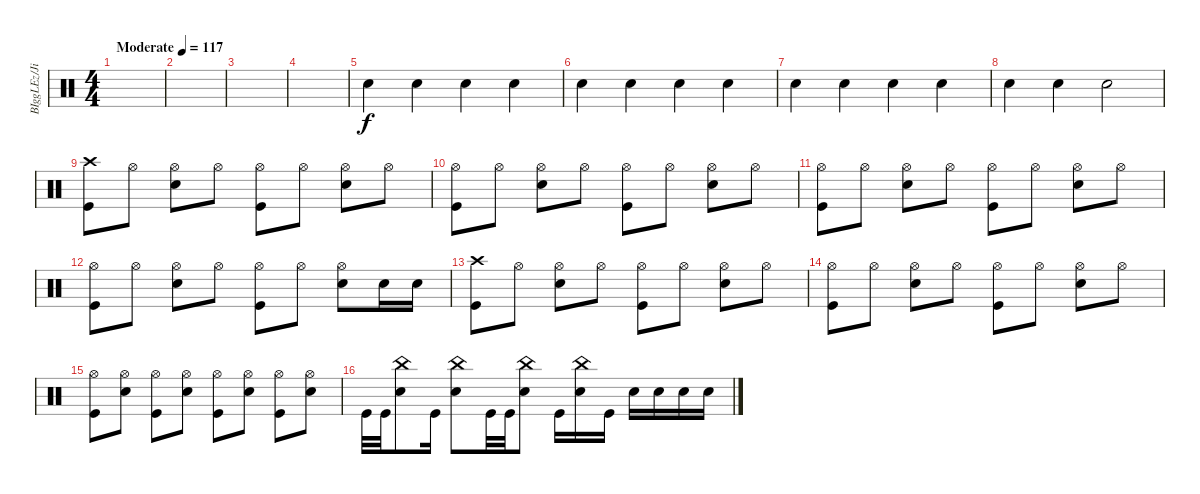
\track ("BIggLEz/Jimmy" "BIggLEz/Ji") {instrument percussion}
\staff {score}
\articulation defaults
\ts (4 4)
\tempo (117 "Moderate")
\clef neutral
\ks c
|
|
|
|
"Hand Clap (hit)".4 "Hand Clap (hit)".4 "Hand Clap (hit)".4 "Hand Clap (hit)".4 |
"Hand Clap (hit)".4 "Hand Clap (hit)".4 "Hand Clap (hit)".4 "Hand Clap (hit)".4 |
"Hand Clap (hit)".4 "Hand Clap (hit)".4 "Hand Clap (hit)".4 "Hand Clap (hit)".4 |
"Hand Clap (hit)".4 "Hand Clap (hit)".4 "Hand Clap (hit)".2 |
("Kick (hit)" "Crash high (hit)").8 "Hi-Hat (open)".8 ("Hi-Hat (open)" "Snare (hit) 2").8 "Hi-Hat (open)".8 ("Hi-Hat (open)" "Kick (hit)").8 "Hi-Hat (open)".8 ("Hi-Hat (open)" "Snare (hit) 2").8 "Hi-Hat (open)".8 |
("Kick (hit)" "Hi-Hat (open)").8 "Hi-Hat (open)".8 ("Hi-Hat (open)" "Snare (hit) 2").8 "Hi-Hat (open)".8 ("Hi-Hat (open)" "Kick (hit)").8 "Hi-Hat (open)".8 ("Hi-Hat (open)" "Snare (hit) 2").8 "Hi-Hat (open)".8 |
("Kick (hit)" "Hi-Hat (open)").8 "Hi-Hat (open)".8 ("Hi-Hat (open)" "Snare (hit) 2").8 "Hi-Hat (open)".8 ("Hi-Hat (open)" "Kick (hit)").8 "Hi-Hat (open)".8 ("Hi-Hat (open)" "Snare (hit) 2").8 "Hi-Hat (open)".8 |
("Kick (hit)" "Hi-Hat (open)").8 "Hi-Hat (open)".8 ("Hi-Hat (open)" "Snare (hit) 2").8 "Hi-Hat (open)".8 ("Hi-Hat (open)" "Kick (hit)").8 "Hi-Hat (open)".8 ("Hi-Hat (open)" "Snare (hit) 2").8 "Snare (hit) 2".16 "Snare (hit) 2".16 |
("Kick (hit)" "Crash high (hit)").8 "Hi-Hat (open)".8 ("Hi-Hat (open)" "Snare (hit) 2").8 "Hi-Hat (open)".8 ("Hi-Hat (open)" "Kick (hit)").8 "Hi-Hat (open)".8 ("Hi-Hat (open)" "Snare (hit) 2").8 "Hi-Hat (open)".8 |
("Kick (hit)" "Hi-Hat (open)").8 "Hi-Hat (open)".8 ("Hi-Hat (open)" "Snare (hit) 2").8 "Hi-Hat (open)".8 ("Hi-Hat (open)" "Kick (hit)").8 "Hi-Hat (open)".8 ("Hi-Hat (open)" "Snare (hit) 2").8 "Hi-Hat (open)".8 |
("Kick (hit)" "Hi-Hat (open)").8 ("Hi-Hat (open)" "Snare (hit) 2").8 ("Hi-Hat (open)" "Kick (hit)").8 ("Hi-Hat (open)" "Snare (hit) 2").8 ("Hi-Hat (open)" "Kick (hit)").8 ("Hi-Hat (open)" "Snare (hit) 2").8 ("Hi-Hat (open)" "Kick (hit)").8 ("Hi-Hat (open)" "Snare (hit) 2").8 |
"Kick (hit)".32 "Kick (hit)".32 ("Snare (hit) 2" "China (hit)").8 "Kick (hit)".16 ("Snare (hit) 2" "China (hit)").8 "Kick (hit)".32 "Kick (hit)".32 ("Snare (hit) 2" "China (hit)").8 "Kick (hit)".16 ("Snare (hit) 2" "China (hit)").16 "Kick (hit)".16 "Snare (hit) 2".16 "Snare (hit) 2".16 "Snare (hit) 2".16 "Snare (hit) 2".16
